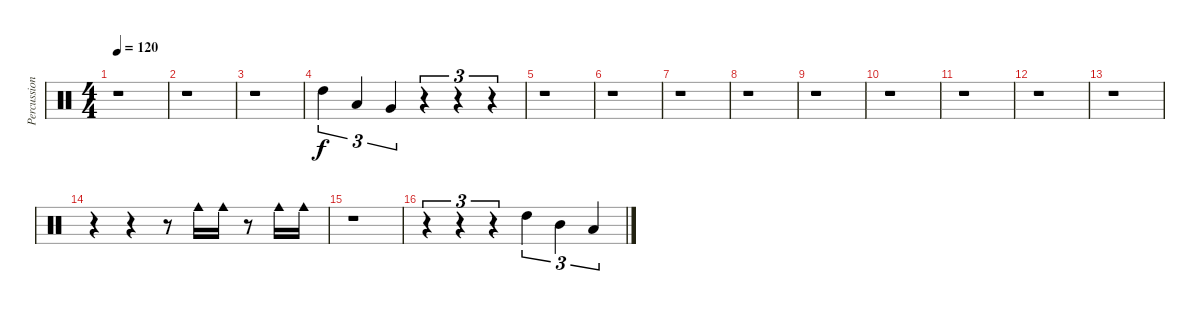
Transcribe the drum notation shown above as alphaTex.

\track ("Percussions" "Percussion") {instrument percussion}
\staff {score}
\articulation defaults
\ts (4 4)
\tempo 120
\clef neutral
\ks c
r.1{dy f} |
r.1 |
r.1 |
"High Tom (hit)".4{tu (3 2)} "Low Tom (hit)".4{tu (3 2)} "Very Low Tom (hit)".4{tu (3 2)} r.4{tu (3 2)} r.4{tu (3 2)} r.4{tu (3 2)} |
r.1 |
r.1 |
r.1 |
r.1 |
r.1 |
r.1 |
r.1 |
r.1 |
r.1 |
r.4 r.4 r.8 "Cowbell medium (hit)".16 "Cowbell medium (hit)".16 r.8 "Cowbell medium (hit)".16 "Cowbell medium (hit)".16 |
r.1 |
r.4{tu (3 2)} r.4{tu (3 2)} r.4{tu (3 2)} "High Tom (hit)".4{tu (3 2)} "Mid Tom (hit)".4{tu (3 2)} "Low Tom (hit)".4{tu (3 2)}
